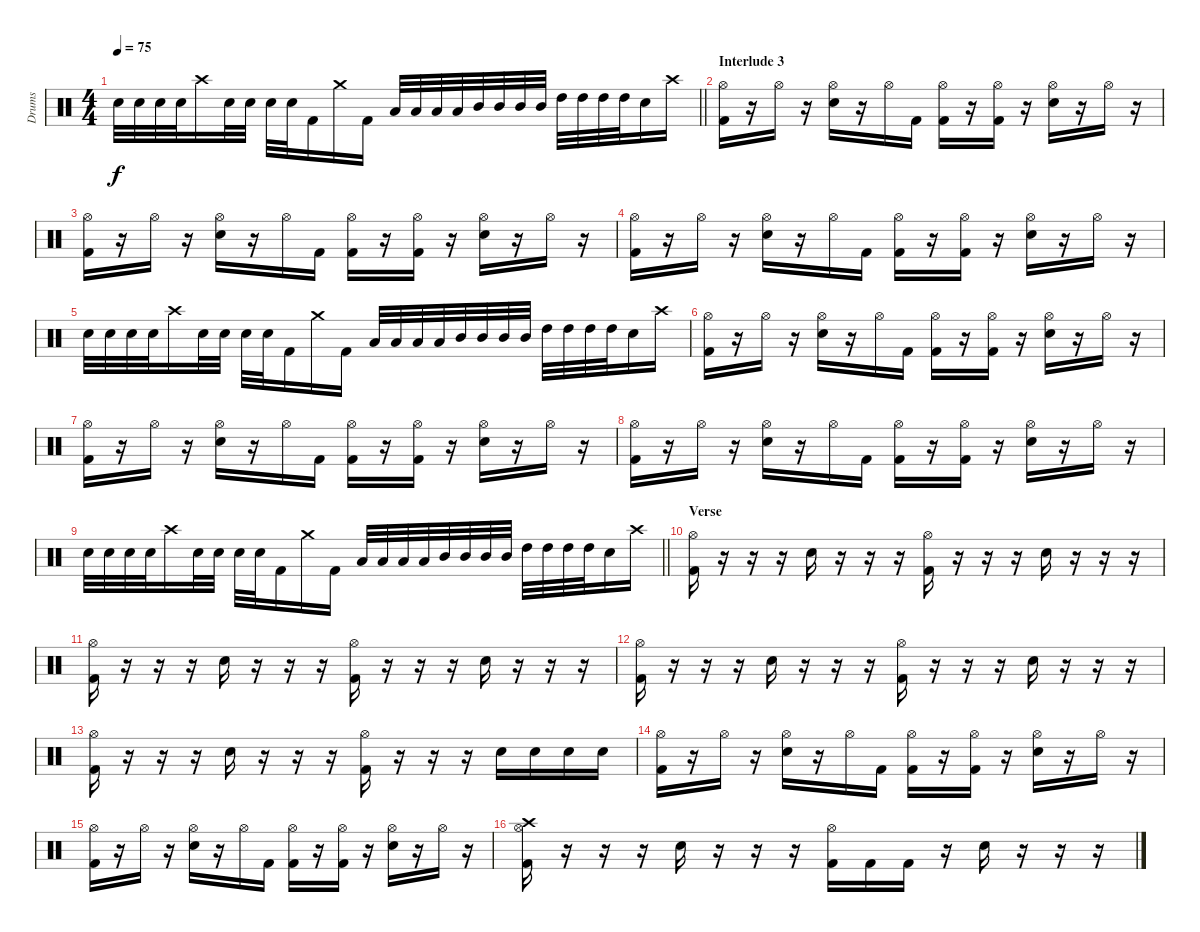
\track ("Drums" "Drums") {instrument percussion}
\staff {score}
\articulation defaults
\ts (4 4)
\tempo 75
\clef neutral
\barLineRight lightlight
\ks c "Electric Snare (hit)".32{dy f} "Electric Snare (hit)".32 "Electric Snare (hit)".32 "Electric Snare (hit)".32 "Crash high (hit)".16 "Electric Snare (hit)".32 "Electric Snare (hit)".32 "Electric Snare (hit)".32 "Electric Snare (hit)".32 "Kick (hit) 2".16 "Crash medium (hit)".16 "Kick (hit) 2".16 "Low Tom (hit)".32 "Low Tom (hit)".32 "Low Tom (hit)".32 "Low Tom (hit)".32 "Mid Tom (hit)".32 "Mid Tom (hit)".32 "Mid Tom (hit)".32 "Mid Tom (hit)".32 "High Tom (hit)".32 "High Tom (hit)".32 "High Tom (hit)".32 "High Tom (hit)".32 "Electric Snare (hit)".16 "Crash high (hit)".16
|
\section ("" "Interlude 3")
("Hi-Hat (open)" "Kick (hit) 2").16 r.16 "Hi-Hat (open)".16 r.16 ("Hi-Hat (open)" "Electric Snare (hit)").16 r.16 "Hi-Hat (open)".16 "Kick (hit) 2".16 ("Hi-Hat (open)" "Kick (hit) 2").16 r.16 ("Hi-Hat (open)" "Kick (hit) 2").16 r.16 ("Hi-Hat (open)" "Electric Snare (hit)").16 r.16 "Hi-Hat (open)".16 r.16 |
("Hi-Hat (open)" "Kick (hit) 2").16 r.16 "Hi-Hat (open)".16 r.16 ("Hi-Hat (open)" "Electric Snare (hit)").16 r.16 "Hi-Hat (open)".16 "Kick (hit) 2".16 ("Hi-Hat (open)" "Kick (hit) 2").16 r.16 ("Hi-Hat (open)" "Kick (hit) 2").16 r.16 ("Hi-Hat (open)" "Electric Snare (hit)").16 r.16 "Hi-Hat (open)".16 r.16 |
("Hi-Hat (open)" "Kick (hit) 2").16 r.16 "Hi-Hat (open)".16 r.16 ("Hi-Hat (open)" "Electric Snare (hit)").16 r.16 "Hi-Hat (open)".16 "Kick (hit) 2".16 ("Hi-Hat (open)" "Kick (hit) 2").16 r.16 ("Hi-Hat (open)" "Kick (hit) 2").16 r.16 ("Hi-Hat (open)" "Electric Snare (hit)").16 r.16 "Hi-Hat (open)".16 r.16 |
"Electric Snare (hit)".32 "Electric Snare (hit)".32 "Electric Snare (hit)".32 "Electric Snare (hit)".32 "Crash high (hit)".16 "Electric Snare (hit)".32 "Electric Snare (hit)".32 "Electric Snare (hit)".32 "Electric Snare (hit)".32 "Kick (hit) 2".16 "Crash medium (hit)".16 "Kick (hit) 2".16 "Low Tom (hit)".32 "Low Tom (hit)".32 "Low Tom (hit)".32 "Low Tom (hit)".32 "Mid Tom (hit)".32 "Mid Tom (hit)".32 "Mid Tom (hit)".32 "Mid Tom (hit)".32 "High Tom (hit)".32 "High Tom (hit)".32 "High Tom (hit)".32 "High Tom (hit)".32 "Electric Snare (hit)".16 "Crash high (hit)".16 |
("Hi-Hat (open)" "Kick (hit) 2").16 r.16 "Hi-Hat (open)".16 r.16 ("Hi-Hat (open)" "Electric Snare (hit)").16 r.16 "Hi-Hat (open)".16 "Kick (hit) 2".16 ("Hi-Hat (open)" "Kick (hit) 2").16 r.16 ("Hi-Hat (open)" "Kick (hit) 2").16 r.16 ("Hi-Hat (open)" "Electric Snare (hit)").16 r.16 "Hi-Hat (open)".16 r.16 |
("Hi-Hat (open)" "Kick (hit) 2").16 r.16 "Hi-Hat (open)".16 r.16 ("Hi-Hat (open)" "Electric Snare (hit)").16 r.16 "Hi-Hat (open)".16 "Kick (hit) 2".16 ("Hi-Hat (open)" "Kick (hit) 2").16 r.16 ("Hi-Hat (open)" "Kick (hit) 2").16 r.16 ("Hi-Hat (open)" "Electric Snare (hit)").16 r.16 "Hi-Hat (open)".16 r.16 |
("Hi-Hat (open)" "Kick (hit) 2").16 r.16 "Hi-Hat (open)".16 r.16 ("Hi-Hat (open)" "Electric Snare (hit)").16 r.16 "Hi-Hat (open)".16 "Kick (hit) 2".16 ("Hi-Hat (open)" "Kick (hit) 2").16 r.16 ("Hi-Hat (open)" "Kick (hit) 2").16 r.16 ("Hi-Hat (open)" "Electric Snare (hit)").16 r.16 "Hi-Hat (open)".16 r.16 |
\barLineRight lightlight "Electric Snare (hit)".32 "Electric Snare (hit)".32 "Electric Snare (hit)".32 "Electric Snare (hit)".32 "Crash high (hit)".16 "Electric Snare (hit)".32 "Electric Snare (hit)".32 "Electric Snare (hit)".32 "Electric Snare (hit)".32 "Kick (hit) 2".16 "Crash medium (hit)".16 "Kick (hit) 2".16 "Low Tom (hit)".32 "Low Tom (hit)".32 "Low Tom (hit)".32 "Low Tom (hit)".32 "Mid Tom (hit)".32 "Mid Tom (hit)".32 "Mid Tom (hit)".32 "Mid Tom (hit)".32 "High Tom (hit)".32 "High Tom (hit)".32 "High Tom (hit)".32 "High Tom (hit)".32 "Electric Snare (hit)".16 "Crash high (hit)".16
|
\section ("" "Verse")
("Hi-Hat (open)" "Kick (hit) 2").16 r.16 r.16 r.16 "Electric Snare (hit)".16 r.16 r.16 r.16 ("Hi-Hat (open)" "Kick (hit) 2").16 r.16 r.16 r.16 "Electric Snare (hit)".16 r.16 r.16 r.16 |
("Hi-Hat (open)" "Kick (hit) 2").16 r.16 r.16 r.16 "Electric Snare (hit)".16 r.16 r.16 r.16 ("Hi-Hat (open)" "Kick (hit) 2").16 r.16 r.16 r.16 "Electric Snare (hit)".16 r.16 r.16 r.16 |
("Hi-Hat (open)" "Kick (hit) 2").16 r.16 r.16 r.16 "Electric Snare (hit)".16 r.16 r.16 r.16 ("Hi-Hat (open)" "Kick (hit) 2").16 r.16 r.16 r.16 "Electric Snare (hit)".16 r.16 r.16 r.16 |
("Hi-Hat (open)" "Kick (hit) 2").16 r.16 r.16 r.16 "Electric Snare (hit)".16 r.16 r.16 r.16 ("Hi-Hat (open)" "Kick (hit) 2").16 r.16 r.16 r.16 "Electric Snare (hit)".16 "Electric Snare (hit)".16 "Electric Snare (hit)".16 "Electric Snare (hit)".16 |
("Hi-Hat (open)" "Kick (hit) 2").16 r.16 "Hi-Hat (open)".16 r.16 ("Hi-Hat (open)" "Electric Snare (hit)").16 r.16 "Hi-Hat (open)".16 "Kick (hit) 2".16 ("Hi-Hat (open)" "Kick (hit) 2").16 r.16 ("Hi-Hat (open)" "Kick (hit) 2").16 r.16 ("Hi-Hat (open)" "Electric Snare (hit)").16 r.16 "Hi-Hat (open)".16 r.16 |
("Hi-Hat (open)" "Kick (hit) 2").16 r.16 "Hi-Hat (open)".16 r.16 ("Hi-Hat (open)" "Electric Snare (hit)").16 r.16 "Hi-Hat (open)".16 "Kick (hit) 2".16 ("Hi-Hat (open)" "Kick (hit) 2").16 r.16 ("Hi-Hat (open)" "Kick (hit) 2").16 r.16 ("Hi-Hat (open)" "Electric Snare (hit)").16 r.16 "Hi-Hat (open)".16 r.16 |
("Hi-Hat (open)" "Crash high (hit)" "Kick (hit) 2").16 r.16 r.16 r.16 "Electric Snare (hit)".16 r.16 r.16 r.16 ("Hi-Hat (open)" "Kick (hit) 2").16 "Kick (hit) 2".16 "Kick (hit) 2".16 r.16 "Electric Snare (hit)".16 r.16 r.16 r.16
